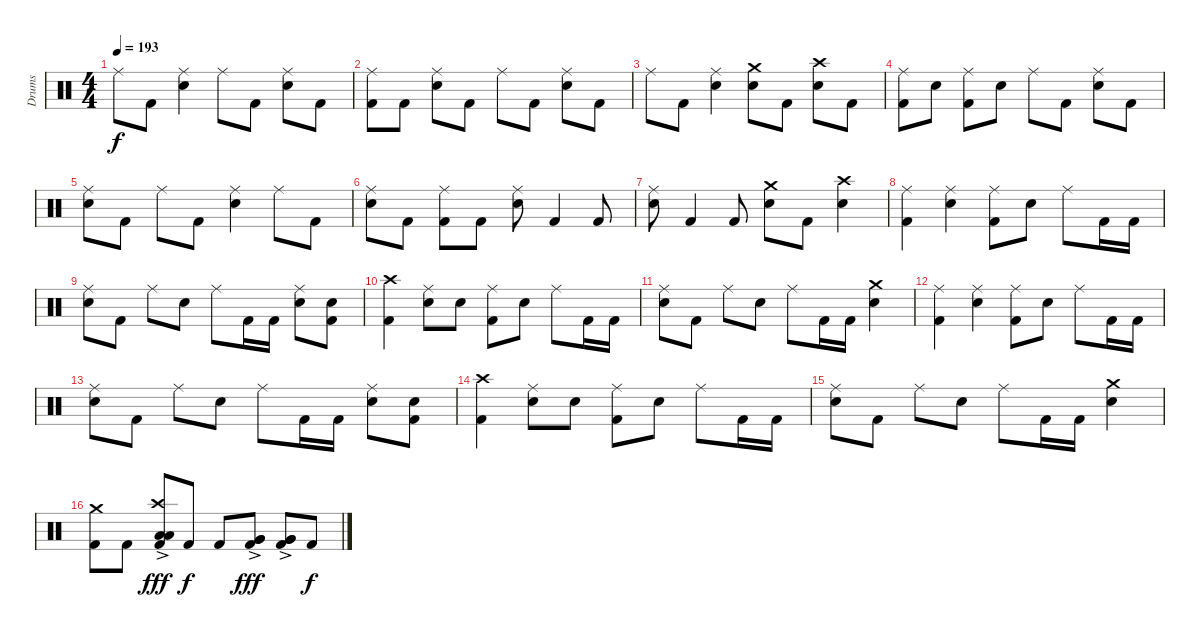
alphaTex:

\track ("Drums" "Drums") {instrument percussion}
\staff {score}
\articulation defaults
\ts (4 4)
\tempo 193
\clef neutral
\ks c "Ride (middle)".8{dy f} "Kick (hit) 2".8
("Ride (middle)" "Snare (hit) 2").4 "Ride (middle)".8 "Kick (hit) 2".8 ("Ride (middle)" "Snare (hit) 2").8 "Kick (hit) 2".8 |
("Ride (middle)" "Kick (hit) 2").8 "Kick (hit) 2".8 ("Ride (middle)" "Snare (hit) 2").8 "Kick (hit) 2".8 "Ride (middle)".8 "Kick (hit) 2".8 ("Ride (middle)" "Snare (hit) 2").8 "Kick (hit) 2".8 |
"Ride (middle)".8 "Kick (hit) 2".8 ("Ride (middle)" "Snare (hit) 2").4 ("Crash medium (hit)" "Snare (hit) 2").8 "Kick (hit) 2".8 ("Crash high (hit)" "Snare (hit) 2").8 "Kick (hit) 2".8 |
("Ride (middle)" "Kick (hit) 2").8 "Snare (hit) 2".8 ("Ride (middle)" "Kick (hit) 2").8 "Snare (hit) 2".8 "Ride (middle)".8 "Kick (hit) 2".8 ("Ride (middle)" "Snare (hit) 2").8 "Kick (hit) 2".8 |
("Ride (middle)" "Snare (hit) 2").8 "Kick (hit) 2".8 "Ride (middle)".8 "Kick (hit) 2".8 ("Ride (middle)" "Snare (hit) 2").4 "Ride (middle)".8 "Kick (hit) 2".8 |
("Ride (middle)" "Snare (hit) 2").8 "Kick (hit) 2".8 ("Ride (middle)" "Kick (hit) 2").8 "Kick (hit) 2".8 ("Ride (middle)" "Snare (hit) 2").8 "Kick (hit) 2".4 "Kick (hit) 2".8 |
("Ride (middle)" "Snare (hit) 2").8 "Kick (hit) 2".4 "Kick (hit) 2".8 ("Crash medium (hit)" "Snare (hit) 2").8 "Kick (hit) 2".8 ("Crash high (hit)" "Snare (hit) 2").4 |
("Ride (middle)" "Kick (hit) 2").4 ("Ride (middle)" "Snare (hit) 2").4 ("Ride (middle)" "Kick (hit) 2").8 "Snare (hit) 2".8 "Ride (middle)".8 "Kick (hit) 2".16 "Kick (hit) 2".16 |
("Ride (middle)" "Snare (hit) 2").8 "Kick (hit) 2".8 "Ride (middle)".8 "Snare (hit) 2".8 "Ride (middle)".8 "Kick (hit) 2".16 "Kick (hit) 2".16 ("Ride (middle)" "Snare (hit) 2").8 ("Snare (hit) 2" "Kick (hit) 2").8 |
("Crash high (hit)" "Kick (hit) 2").4 ("Ride (middle)" "Snare (hit) 2").8 "Snare (hit) 2".8 ("Ride (middle)" "Kick (hit) 2").8 "Snare (hit) 2".8 "Ride (middle)".8 "Kick (hit) 2".16 "Kick (hit) 2".16 |
("Ride (middle)" "Snare (hit) 2").8 "Kick (hit) 2".8 "Ride (middle)".8 "Snare (hit) 2".8 "Ride (middle)".8 "Kick (hit) 2".16 "Kick (hit) 2".16 ("Crash medium (hit)" "Snare (hit) 2").4 |
("Ride (middle)" "Kick (hit) 2").4 ("Ride (middle)" "Snare (hit) 2").4 ("Ride (middle)" "Kick (hit) 2").8 "Snare (hit) 2".8 "Ride (middle)".8 "Kick (hit) 2".16 "Kick (hit) 2".16 |
("Ride (middle)" "Snare (hit) 2").8 "Kick (hit) 2".8 "Ride (middle)".8 "Snare (hit) 2".8 "Ride (middle)".8 "Kick (hit) 2".16 "Kick (hit) 2".16 ("Ride (middle)" "Snare (hit) 2").8 ("Snare (hit) 2" "Kick (hit) 2").8 |
("Crash high (hit)" "Kick (hit) 2").4 ("Ride (middle)" "Snare (hit) 2").8 "Snare (hit) 2".8 ("Ride (middle)" "Kick (hit) 2").8 "Snare (hit) 2".8 "Ride (middle)".8 "Kick (hit) 2".16 "Kick (hit) 2".16 |
("Ride (middle)" "Snare (hit) 2").8 "Kick (hit) 2".8 "Ride (middle)".8 "Snare (hit) 2".8 "Ride (middle)".8 "Kick (hit) 2".16 "Kick (hit) 2".16 ("Crash medium (hit)" "Snare (hit) 2").4 |
("Crash medium (hit)" "Kick (hit) 2").8 "Kick (hit) 2".8 ("Crash high (hit)"{ac} "Low Tom (hit)"{ac} "Low Tom (hit)"{ac} "Kick (hit) 2").8{dy fff} "Kick (hit) 2".8{dy f} "Kick (hit) 2".8 ("Very Low Tom (hit)"{ac} "Very Low Tom (hit)"{ac} "Kick (hit) 2").8{dy fff} ("Very Low Tom (hit)"{ac} "Very Low Tom (hit)"{ac} "Kick (hit) 2").8 "Kick (hit) 2".8{dy f}
